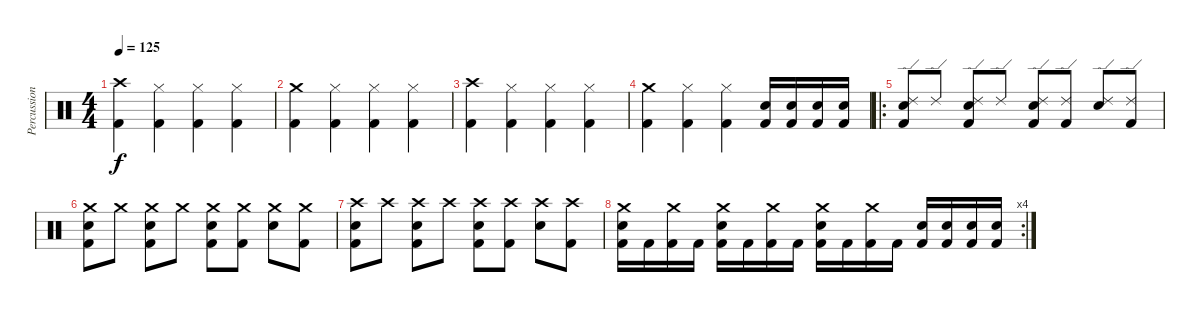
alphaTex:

\track ("Percussion" "Percussion") {instrument percussion}
\staff {score}
\articulation defaults
\ts (4 4)
\tempo 125
\clef neutral
\ks c
("Crash high (hit)" "Kick (hit) 2").4{dy f} ("Hi-Hat (closed)" "Kick (hit) 2").4 ("Hi-Hat (closed)" "Kick (hit) 2").4 ("Hi-Hat (closed)" "Kick (hit) 2").4 |
("Crash medium (hit)" "Kick (hit) 2").4 ("Hi-Hat (closed)" "Kick (hit) 2").4 ("Hi-Hat (closed)" "Kick (hit) 2").4 ("Hi-Hat (closed)" "Kick (hit) 2").4 |
("Crash high (hit)" "Kick (hit) 2").4 ("Hi-Hat (closed)" "Kick (hit) 2").4 ("Hi-Hat (closed)" "Kick (hit) 2").4 ("Hi-Hat (closed)" "Kick (hit) 2").4 |
("Crash medium (hit)" "Kick (hit) 2").4 ("Hi-Hat (closed)" "Kick (hit) 2").4 ("Hi-Hat (closed)" "Kick (hit) 2").4 ("Snare (hit) 2" "Kick (hit) 2").16 ("Snare (hit) 2" "Kick (hit) 2").16 ("Snare (hit) 2" "Kick (hit) 2").16 ("Snare (hit) 2" "Kick (hit) 2").16 |
\ro
("Ride (edge) 2" "Snare (hit) 2" "Kick (hit) 2").8 "Ride (edge) 2".8 ("Ride (edge) 2" "Snare (hit) 2" "Kick (hit) 2").8 "Ride (edge) 2".8 ("Ride (edge) 2" "Snare (hit) 2" "Kick (hit) 2").8 ("Ride (edge) 2" "Kick (hit) 2").8 ("Ride (edge) 2" "Snare (hit) 2").8 ("Ride (edge) 2" "Kick (hit) 2").8 |
("Crash medium (hit)" "Snare (hit) 2" "Kick (hit) 2").8 "Crash medium (hit)".8 ("Crash medium (hit)" "Snare (hit) 2" "Kick (hit) 2").8 "Crash medium (hit)".8 ("Crash medium (hit)" "Snare (hit) 2" "Kick (hit) 2").8 ("Crash medium (hit)" "Kick (hit) 2").8 ("Crash medium (hit)" "Snare (hit) 2").8 ("Crash medium (hit)" "Kick (hit) 2").8 |
("Crash high (hit)" "Snare (hit) 2" "Kick (hit) 2").8 "Crash high (hit)".8 ("Crash high (hit)" "Snare (hit) 2" "Kick (hit) 2").8 "Crash high (hit)".8 ("Crash high (hit)" "Snare (hit) 2" "Kick (hit) 2").8 ("Crash high (hit)" "Kick (hit) 2").8 ("Crash high (hit)" "Snare (hit) 2").8 ("Crash high (hit)" "Kick (hit) 2").8 |
\rc 4
("Crash medium (hit)" "Snare (hit) 2" "Kick (hit) 2").16 "Kick (hit) 2".16 ("Crash medium (hit)" "Kick (hit) 2").16 "Kick (hit) 2".16 ("Crash medium (hit)" "Snare (hit) 2" "Kick (hit) 2").16 "Kick (hit) 2".16 ("Crash medium (hit)" "Kick (hit) 2").16 "Kick (hit) 2".16 ("Crash medium (hit)" "Snare (hit) 2" "Kick (hit) 2").16 "Kick (hit) 2".16 ("Crash medium (hit)" "Kick (hit) 2").16 "Kick (hit) 2".16 ("Snare (hit) 2" "Kick (hit) 2").16 ("Snare (hit) 2" "Kick (hit) 2").16 ("Snare (hit) 2" "Kick (hit) 2").16 ("Snare (hit) 2" "Kick (hit) 2").16
